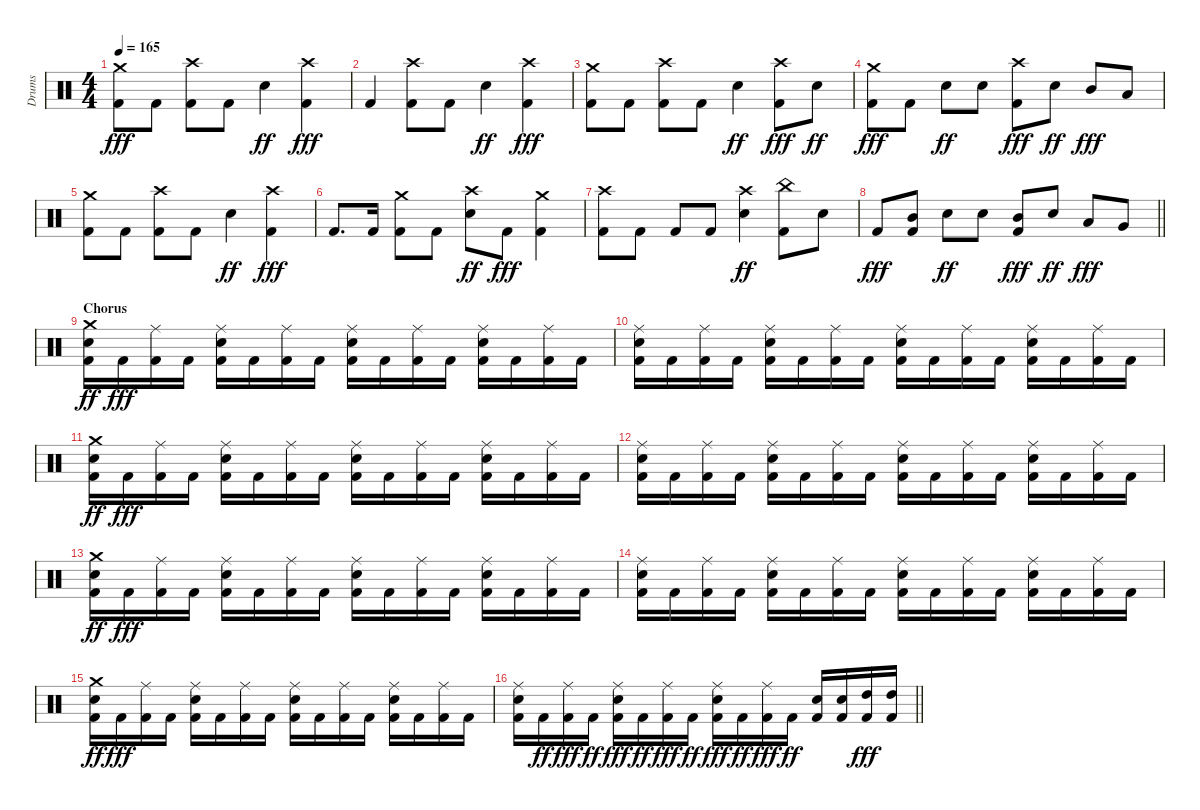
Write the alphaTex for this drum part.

\track ("Drums" "Drums") {instrument percussion}
\staff {score}
\articulation defaults
\ts (4 4)
\tempo 165
\clef neutral
\ks c
("Kick (hit) 2" "Crash medium (hit)").8{dy fff} "Kick (hit) 2".8 ("Kick (hit) 2" "Crash high (hit)").8 "Kick (hit) 2".8 "Snare (hit) 2".4{dy ff} ("Kick (hit) 2" "Crash high (hit)").4{dy fff} |
"Kick (hit) 2".4 ("Kick (hit) 2" "Crash high (hit)").8 "Kick (hit) 2".8 "Snare (hit) 2".4{dy ff} ("Kick (hit) 2" "Crash high (hit)").4{dy fff} |
("Kick (hit) 2" "Crash medium (hit)").8 "Kick (hit) 2".8 ("Kick (hit) 2" "Crash high (hit)").8 "Kick (hit) 2".8 "Snare (hit) 2".4{dy ff} ("Kick (hit) 2" "Crash high (hit)").8{dy fff} "Snare (hit) 2".8{dy ff} |
("Kick (hit) 2" "Crash medium (hit)").8{dy fff} "Kick (hit) 2".8 "Snare (hit) 2".8{dy ff} "Snare (hit) 2".8 ("Kick (hit) 2" "Crash high (hit)").8{dy fff} "Snare (hit) 2".8{dy ff} "Mid Tom (hit)".8{dy fff} "Low Tom (hit)".8 |
("Kick (hit) 2" "Crash medium (hit)").8 "Kick (hit) 2".8 ("Kick (hit) 2" "Crash high (hit)").8 "Kick (hit) 2".8 "Snare (hit) 2".4{dy ff} ("Kick (hit) 2" "Crash high (hit)").4{dy fff} |
"Kick (hit) 2".8{d} "Kick (hit) 2".16 ("Kick (hit) 2" "Crash medium (hit)").8 "Kick (hit) 2".8 ("Snare (hit) 2" "Crash high (hit)").8{dy ff} "Kick (hit) 2".8{dy fff} ("Kick (hit) 2" "Crash medium (hit)").4 |
("Kick (hit) 2" "Crash high (hit)").8 "Kick (hit) 2".8 "Kick (hit) 2".8 "Kick (hit) 2".8 ("Snare (hit) 2" "Crash high (hit)").4{dy ff} ("Kick (hit) 2" "China (hit)").8 "Snare (hit) 2".8 |
\barLineRight lightlight "Kick (hit) 2".8{dy fff}
("Kick (hit) 2" "Mid Tom (hit)").8 "Snare (hit) 2".8{dy ff} "Snare (hit) 2".8 ("Kick (hit) 2" "Mid Tom (hit)").8{dy fff} "Snare (hit) 2".8{dy ff} "Low Tom (hit)".8{dy fff} "Very Low Tom (hit)".8 |
\section ("" "Chorus")
("Kick (hit) 2" "Snare (hit) 2" "Crash medium (hit)").16{dy ff} "Kick (hit) 2".16{dy fff} ("Kick (hit) 2" "Ride (middle)").16 "Kick (hit) 2".16 ("Kick (hit) 2" "Snare (hit) 2" "Ride (middle)").16 "Kick (hit) 2".16 ("Kick (hit) 2" "Ride (middle)").16 "Kick (hit) 2".16 ("Kick (hit) 2" "Snare (hit) 2" "Ride (middle)").16 "Kick (hit) 2".16 ("Kick (hit) 2" "Ride (middle)").16 "Kick (hit) 2".16 ("Kick (hit) 2" "Snare (hit) 2" "Ride (middle)").16 "Kick (hit) 2".16 ("Kick (hit) 2" "Ride (middle)").16 "Kick (hit) 2".16 |
("Kick (hit) 2" "Snare (hit) 2" "Ride (middle)").16 "Kick (hit) 2".16 ("Kick (hit) 2" "Ride (middle)").16 "Kick (hit) 2".16 ("Kick (hit) 2" "Snare (hit) 2" "Ride (middle)").16 "Kick (hit) 2".16 ("Kick (hit) 2" "Ride (middle)").16 "Kick (hit) 2".16 ("Kick (hit) 2" "Snare (hit) 2" "Ride (middle)").16 "Kick (hit) 2".16 ("Kick (hit) 2" "Ride (middle)").16 "Kick (hit) 2".16 ("Kick (hit) 2" "Snare (hit) 2" "Ride (middle)").16 "Kick (hit) 2".16 ("Kick (hit) 2" "Ride (middle)").16 "Kick (hit) 2".16 |
("Kick (hit) 2" "Snare (hit) 2" "Crash medium (hit)").16{dy ff} "Kick (hit) 2".16{dy fff} ("Kick (hit) 2" "Ride (middle)").16 "Kick (hit) 2".16 ("Kick (hit) 2" "Snare (hit) 2" "Ride (middle)").16 "Kick (hit) 2".16 ("Kick (hit) 2" "Ride (middle)").16 "Kick (hit) 2".16 ("Kick (hit) 2" "Snare (hit) 2" "Ride (middle)").16 "Kick (hit) 2".16 ("Kick (hit) 2" "Ride (middle)").16 "Kick (hit) 2".16 ("Kick (hit) 2" "Snare (hit) 2" "Ride (middle)").16 "Kick (hit) 2".16 ("Kick (hit) 2" "Ride (middle)").16 "Kick (hit) 2".16 |
("Kick (hit) 2" "Snare (hit) 2" "Ride (middle)").16 "Kick (hit) 2".16 ("Kick (hit) 2" "Ride (middle)").16 "Kick (hit) 2".16 ("Kick (hit) 2" "Snare (hit) 2" "Ride (middle)").16 "Kick (hit) 2".16 ("Kick (hit) 2" "Ride (middle)").16 "Kick (hit) 2".16 ("Kick (hit) 2" "Snare (hit) 2" "Ride (middle)").16 "Kick (hit) 2".16 ("Kick (hit) 2" "Ride (middle)").16 "Kick (hit) 2".16 ("Kick (hit) 2" "Snare (hit) 2" "Ride (middle)").16 "Kick (hit) 2".16 ("Kick (hit) 2" "Ride (middle)").16 "Kick (hit) 2".16 |
("Kick (hit) 2" "Snare (hit) 2" "Crash medium (hit)").16{dy ff} "Kick (hit) 2".16{dy fff} ("Kick (hit) 2" "Ride (middle)").16 "Kick (hit) 2".16 ("Kick (hit) 2" "Snare (hit) 2" "Ride (middle)").16 "Kick (hit) 2".16 ("Kick (hit) 2" "Ride (middle)").16 "Kick (hit) 2".16 ("Kick (hit) 2" "Snare (hit) 2" "Ride (middle)").16 "Kick (hit) 2".16 ("Kick (hit) 2" "Ride (middle)").16 "Kick (hit) 2".16 ("Kick (hit) 2" "Snare (hit) 2" "Ride (middle)").16 "Kick (hit) 2".16 ("Kick (hit) 2" "Ride (middle)").16 "Kick (hit) 2".16 |
("Kick (hit) 2" "Snare (hit) 2" "Ride (middle)").16 "Kick (hit) 2".16 ("Kick (hit) 2" "Ride (middle)").16 "Kick (hit) 2".16 ("Kick (hit) 2" "Snare (hit) 2" "Ride (middle)").16 "Kick (hit) 2".16 ("Kick (hit) 2" "Ride (middle)").16 "Kick (hit) 2".16 ("Kick (hit) 2" "Snare (hit) 2" "Ride (middle)").16 "Kick (hit) 2".16 ("Kick (hit) 2" "Ride (middle)").16 "Kick (hit) 2".16 ("Kick (hit) 2" "Snare (hit) 2" "Ride (middle)").16 "Kick (hit) 2".16 ("Kick (hit) 2" "Ride (middle)").16 "Kick (hit) 2".16 |
("Kick (hit) 2" "Snare (hit) 2" "Crash medium (hit)").16{dy ff} "Kick (hit) 2".16{dy fff} ("Kick (hit) 2" "Ride (middle)").16 "Kick (hit) 2".16 ("Kick (hit) 2" "Snare (hit) 2" "Ride (middle)").16 "Kick (hit) 2".16 ("Kick (hit) 2" "Ride (middle)").16 "Kick (hit) 2".16 ("Kick (hit) 2" "Snare (hit) 2" "Ride (middle)").16 "Kick (hit) 2".16 ("Kick (hit) 2" "Ride (middle)").16 "Kick (hit) 2".16 ("Kick (hit) 2" "Snare (hit) 2" "Ride (middle)").16 "Kick (hit) 2".16 ("Kick (hit) 2" "Ride (middle)").16 "Kick (hit) 2".16 |
\barLineRight lightlight
("Kick (hit) 2" "Snare (hit) 2" "Ride (middle)").16 "Kick (hit) 2".16{dy ff} ("Kick (hit) 2" "Ride (middle)").16{dy fff} "Kick (hit) 2".16{dy ff} ("Kick (hit) 2" "Snare (hit) 2" "Ride (middle)").16{dy fff} "Kick (hit) 2".16{dy ff} ("Kick (hit) 2" "Ride (middle)").16{dy fff} "Kick (hit) 2".16{dy ff} ("Kick (hit) 2" "Snare (hit) 2" "Ride (middle)").16{dy fff} "Kick (hit) 2".16{dy ff} ("Kick (hit) 2" "Ride (middle)").16{dy fff} "Kick (hit) 2".16{dy ff} ("Kick (hit) 2" "Snare (hit) 2").16 ("Kick (hit) 2" "Snare (hit) 2").16 ("Kick (hit) 2" "High Tom (hit)").16{dy fff} ("Kick (hit) 2" "High Tom (hit)").16
